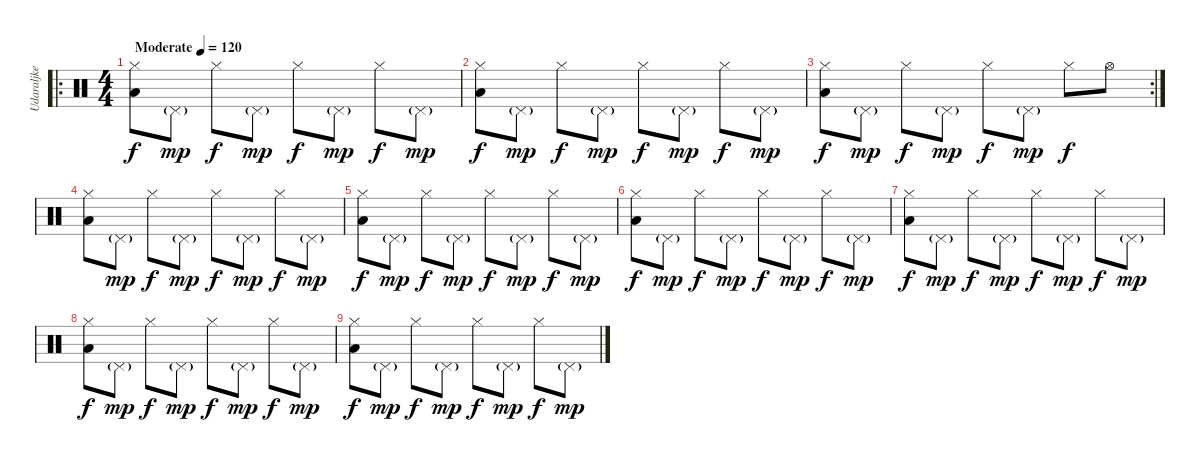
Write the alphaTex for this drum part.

\track ("Udaraljke" "Udaraljke") {instrument percussion}
\staff {score}
\articulation defaults
\ro
\ts (4 4)
\tempo (120 "Moderate")
\clef neutral
\ks c
("Hi-Hat (closed)" "Low Floor Tom (hit)").8{dy f} "Pedal Hi-Hat (hit)"{g}.8{dy mp} "Hi-Hat (closed)".8{dy f} "Pedal Hi-Hat (hit)"{g}.8{dy mp} "Hi-Hat (closed)".8{dy f} "Pedal Hi-Hat (hit)"{g}.8{dy mp} "Hi-Hat (closed)".8{dy f} "Pedal Hi-Hat (hit)"{g}.8{dy mp} |
("Hi-Hat (closed)" "Low Floor Tom (hit)").8{dy f} "Pedal Hi-Hat (hit)"{g}.8{dy mp} "Hi-Hat (closed)".8{dy f} "Pedal Hi-Hat (hit)"{g}.8{dy mp} "Hi-Hat (closed)".8{dy f} "Pedal Hi-Hat (hit)"{g}.8{dy mp} "Hi-Hat (closed)".8{dy f} "Pedal Hi-Hat (hit)"{g}.8{dy mp} |
\rc 2
("Hi-Hat (closed)" "Low Floor Tom (hit)").8{dy f} "Pedal Hi-Hat (hit)"{g}.8{dy mp} "Hi-Hat (closed)".8{dy f} "Pedal Hi-Hat (hit)"{g}.8{dy mp} "Hi-Hat (closed)".8{dy f} "Pedal Hi-Hat (hit)"{g}.8{dy mp} "Hi-Hat (closed)".8{dy f} "Hi-Hat (open)".8 |
("Hi-Hat (closed)" "Low Floor Tom (hit)").8 "Pedal Hi-Hat (hit)"{g}.8{dy mp} "Hi-Hat (closed)".8{dy f} "Pedal Hi-Hat (hit)"{g}.8{dy mp} "Hi-Hat (closed)".8{dy f} "Pedal Hi-Hat (hit)"{g}.8{dy mp} "Hi-Hat (closed)".8{dy f} "Pedal Hi-Hat (hit)"{g}.8{dy mp} |
("Hi-Hat (closed)" "Low Floor Tom (hit)").8{dy f} "Pedal Hi-Hat (hit)"{g}.8{dy mp} "Hi-Hat (closed)".8{dy f} "Pedal Hi-Hat (hit)"{g}.8{dy mp} "Hi-Hat (closed)".8{dy f} "Pedal Hi-Hat (hit)"{g}.8{dy mp} "Hi-Hat (closed)".8{dy f} "Pedal Hi-Hat (hit)"{g}.8{dy mp} |
("Hi-Hat (closed)" "Low Floor Tom (hit)").8{dy f} "Pedal Hi-Hat (hit)"{g}.8{dy mp} "Hi-Hat (closed)".8{dy f} "Pedal Hi-Hat (hit)"{g}.8{dy mp} "Hi-Hat (closed)".8{dy f} "Pedal Hi-Hat (hit)"{g}.8{dy mp} "Hi-Hat (closed)".8{dy f} "Pedal Hi-Hat (hit)"{g}.8{dy mp} |
("Hi-Hat (closed)" "Low Floor Tom (hit)").8{dy f} "Pedal Hi-Hat (hit)"{g}.8{dy mp} "Hi-Hat (closed)".8{dy f} "Pedal Hi-Hat (hit)"{g}.8{dy mp} "Hi-Hat (closed)".8{dy f} "Pedal Hi-Hat (hit)"{g}.8{dy mp} "Hi-Hat (closed)".8{dy f} "Pedal Hi-Hat (hit)"{g}.8{dy mp} |
("Hi-Hat (closed)" "Low Floor Tom (hit)").8{dy f} "Pedal Hi-Hat (hit)"{g}.8{dy mp} "Hi-Hat (closed)".8{dy f} "Pedal Hi-Hat (hit)"{g}.8{dy mp} "Hi-Hat (closed)".8{dy f} "Pedal Hi-Hat (hit)"{g}.8{dy mp} "Hi-Hat (closed)".8{dy f} "Pedal Hi-Hat (hit)"{g}.8{dy mp} |
("Hi-Hat (closed)" "Low Floor Tom (hit)").8{dy f} "Pedal Hi-Hat (hit)"{g}.8{dy mp} "Hi-Hat (closed)".8{dy f} "Pedal Hi-Hat (hit)"{g}.8{dy mp} "Hi-Hat (closed)".8{dy f} "Pedal Hi-Hat (hit)"{g}.8{dy mp} "Hi-Hat (closed)".8{dy f} "Pedal Hi-Hat (hit)"{g}.8{dy mp}
